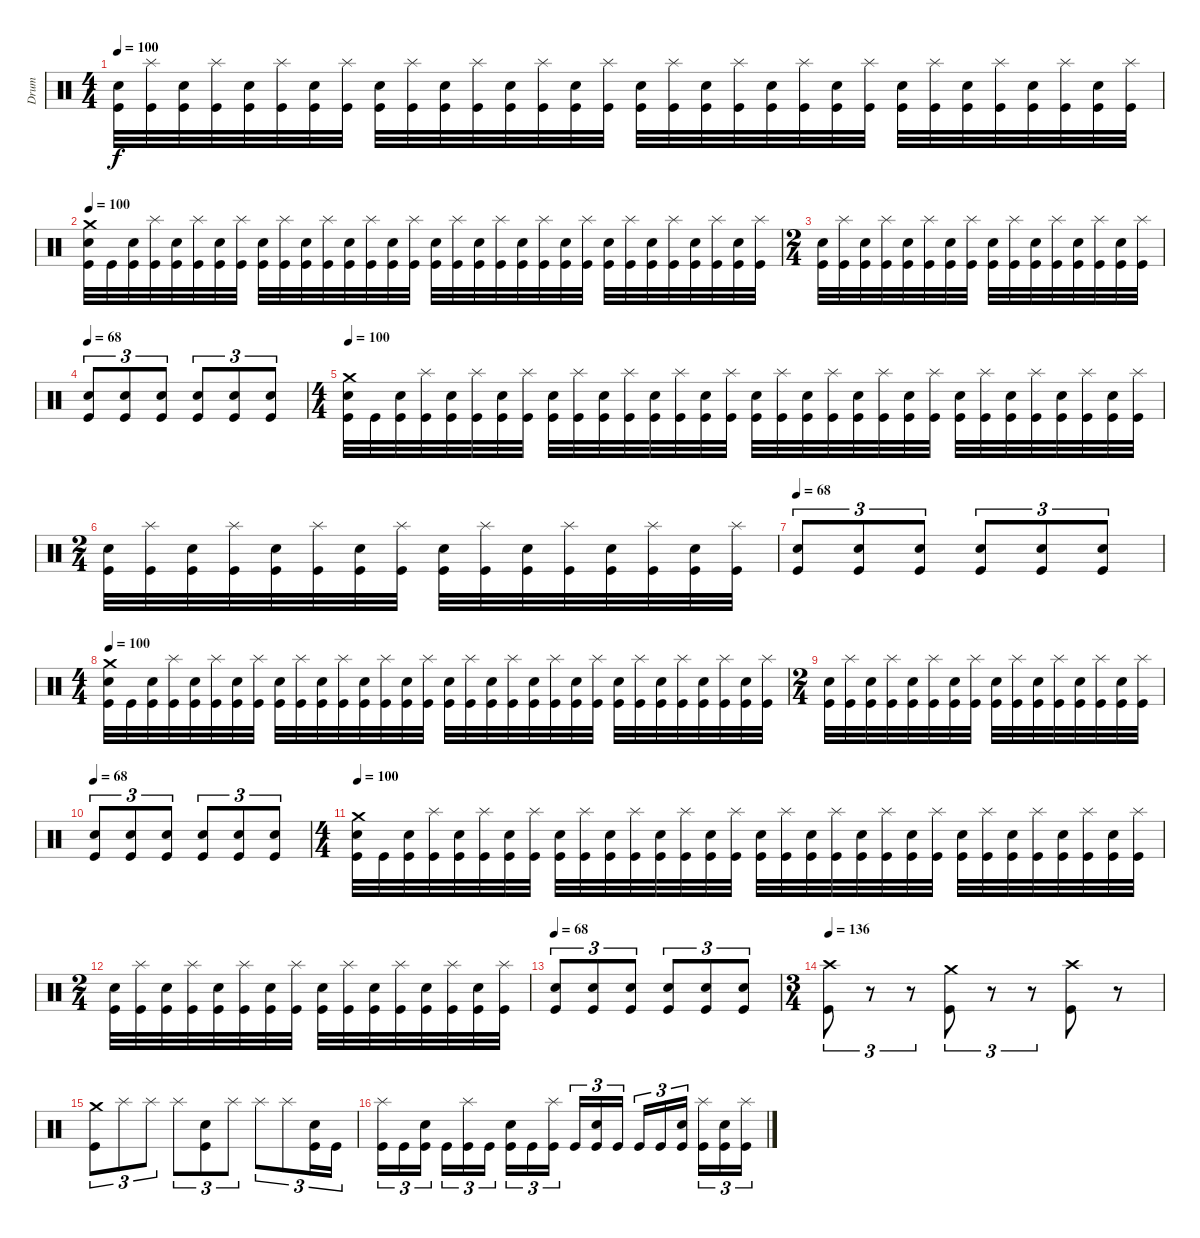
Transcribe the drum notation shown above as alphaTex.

\track ("Drum" "Drum") {instrument percussion}
\staff
\articulation defaults
\ts (4 4)
\tempo 100
\clef neutral
\ks c
("Electric Snare (hit)" "Kick (hit)").32{dy f} ("Splash (hit)" "Kick (hit)").32 ("Electric Snare (hit)" "Kick (hit)").32 ("Splash (hit)" "Kick (hit)").32 ("Electric Snare (hit)" "Kick (hit)").32 ("Splash (hit)" "Kick (hit)").32 ("Electric Snare (hit)" "Kick (hit)").32 ("Splash (hit)" "Kick (hit)").32 ("Electric Snare (hit)" "Kick (hit)").32 ("Splash (hit)" "Kick (hit)").32 ("Electric Snare (hit)" "Kick (hit)").32 ("Splash (hit)" "Kick (hit)").32 ("Electric Snare (hit)" "Kick (hit)").32 ("Splash (hit)" "Kick (hit)").32 ("Electric Snare (hit)" "Kick (hit)").32 ("Splash (hit)" "Kick (hit)").32 ("Electric Snare (hit)" "Kick (hit)").32 ("Splash (hit)" "Kick (hit)").32 ("Electric Snare (hit)" "Kick (hit)").32 ("Splash (hit)" "Kick (hit)").32 ("Electric Snare (hit)" "Kick (hit)").32 ("Splash (hit)" "Kick (hit)").32 ("Electric Snare (hit)" "Kick (hit)").32 ("Splash (hit)" "Kick (hit)").32 ("Electric Snare (hit)" "Kick (hit)").32 ("Splash (hit)" "Kick (hit)").32 ("Electric Snare (hit)" "Kick (hit)").32 ("Splash (hit)" "Kick (hit)").32 ("Electric Snare (hit)" "Kick (hit)").32 ("Splash (hit)" "Kick (hit)").32 ("Electric Snare (hit)" "Kick (hit)").32 ("Splash (hit)" "Kick (hit)").32 |
\tempo 100
("Crash medium (hit)" "Electric Snare (hit)" "Kick (hit)").32 "Kick (hit)".32 ("Electric Snare (hit)" "Kick (hit)").32 ("Splash (hit)" "Kick (hit)").32 ("Electric Snare (hit)" "Kick (hit)").32 ("Splash (hit)" "Kick (hit)").32 ("Electric Snare (hit)" "Kick (hit)").32 ("Splash (hit)" "Kick (hit)").32 ("Electric Snare (hit)" "Kick (hit)").32 ("Splash (hit)" "Kick (hit)").32 ("Electric Snare (hit)" "Kick (hit)").32 ("Splash (hit)" "Kick (hit)").32 ("Electric Snare (hit)" "Kick (hit)").32 ("Splash (hit)" "Kick (hit)").32 ("Electric Snare (hit)" "Kick (hit)").32 ("Splash (hit)" "Kick (hit)").32 ("Electric Snare (hit)" "Kick (hit)").32 ("Splash (hit)" "Kick (hit)").32 ("Electric Snare (hit)" "Kick (hit)").32 ("Splash (hit)" "Kick (hit)").32 ("Electric Snare (hit)" "Kick (hit)").32 ("Splash (hit)" "Kick (hit)").32 ("Electric Snare (hit)" "Kick (hit)").32 ("Splash (hit)" "Kick (hit)").32 ("Electric Snare (hit)" "Kick (hit)").32 ("Splash (hit)" "Kick (hit)").32 ("Electric Snare (hit)" "Kick (hit)").32 ("Splash (hit)" "Kick (hit)").32 ("Electric Snare (hit)" "Kick (hit)").32 ("Splash (hit)" "Kick (hit)").32 ("Electric Snare (hit)" "Kick (hit)").32 ("Splash (hit)" "Kick (hit)").32 |
\ts (2 4)
("Electric Snare (hit)" "Kick (hit)").32 ("Splash (hit)" "Kick (hit)").32 ("Electric Snare (hit)" "Kick (hit)").32 ("Splash (hit)" "Kick (hit)").32 ("Electric Snare (hit)" "Kick (hit)").32 ("Splash (hit)" "Kick (hit)").32 ("Electric Snare (hit)" "Kick (hit)").32 ("Splash (hit)" "Kick (hit)").32 ("Electric Snare (hit)" "Kick (hit)").32 ("Splash (hit)" "Kick (hit)").32 ("Electric Snare (hit)" "Kick (hit)").32 ("Splash (hit)" "Kick (hit)").32 ("Electric Snare (hit)" "Kick (hit)").32 ("Splash (hit)" "Kick (hit)").32 ("Electric Snare (hit)" "Kick (hit)").32 ("Splash (hit)" "Kick (hit)").32 |
\tempo 68
("Electric Snare (hit)" "Kick (hit)").8{tu (3 2)} ("Electric Snare (hit)" "Kick (hit)").8{tu (3 2)} ("Electric Snare (hit)" "Kick (hit)").8{tu (3 2)} ("Electric Snare (hit)" "Kick (hit)").8{tu (3 2)} ("Electric Snare (hit)" "Kick (hit)").8{tu (3 2)} ("Electric Snare (hit)" "Kick (hit)").8{tu (3 2)} |
\ts (4 4)
\tempo 100
("Crash medium (hit)" "Electric Snare (hit)" "Kick (hit)").32 "Kick (hit)".32 ("Electric Snare (hit)" "Kick (hit)").32 ("Splash (hit)" "Kick (hit)").32 ("Electric Snare (hit)" "Kick (hit)").32 ("Splash (hit)" "Kick (hit)").32 ("Electric Snare (hit)" "Kick (hit)").32 ("Splash (hit)" "Kick (hit)").32 ("Electric Snare (hit)" "Kick (hit)").32 ("Splash (hit)" "Kick (hit)").32 ("Electric Snare (hit)" "Kick (hit)").32 ("Splash (hit)" "Kick (hit)").32 ("Electric Snare (hit)" "Kick (hit)").32 ("Splash (hit)" "Kick (hit)").32 ("Electric Snare (hit)" "Kick (hit)").32 ("Splash (hit)" "Kick (hit)").32 ("Electric Snare (hit)" "Kick (hit)").32 ("Splash (hit)" "Kick (hit)").32 ("Electric Snare (hit)" "Kick (hit)").32 ("Splash (hit)" "Kick (hit)").32 ("Electric Snare (hit)" "Kick (hit)").32 ("Splash (hit)" "Kick (hit)").32 ("Electric Snare (hit)" "Kick (hit)").32 ("Splash (hit)" "Kick (hit)").32 ("Electric Snare (hit)" "Kick (hit)").32 ("Splash (hit)" "Kick (hit)").32 ("Electric Snare (hit)" "Kick (hit)").32 ("Splash (hit)" "Kick (hit)").32 ("Electric Snare (hit)" "Kick (hit)").32 ("Splash (hit)" "Kick (hit)").32 ("Electric Snare (hit)" "Kick (hit)").32 ("Splash (hit)" "Kick (hit)").32 |
\ts (2 4)
("Electric Snare (hit)" "Kick (hit)").32 ("Splash (hit)" "Kick (hit)").32 ("Electric Snare (hit)" "Kick (hit)").32 ("Splash (hit)" "Kick (hit)").32 ("Electric Snare (hit)" "Kick (hit)").32 ("Splash (hit)" "Kick (hit)").32 ("Electric Snare (hit)" "Kick (hit)").32 ("Splash (hit)" "Kick (hit)").32 ("Electric Snare (hit)" "Kick (hit)").32 ("Splash (hit)" "Kick (hit)").32 ("Electric Snare (hit)" "Kick (hit)").32 ("Splash (hit)" "Kick (hit)").32 ("Electric Snare (hit)" "Kick (hit)").32 ("Splash (hit)" "Kick (hit)").32 ("Electric Snare (hit)" "Kick (hit)").32 ("Splash (hit)" "Kick (hit)").32 |
\tempo 68
("Electric Snare (hit)" "Kick (hit)").8{tu (3 2)} ("Electric Snare (hit)" "Kick (hit)").8{tu (3 2)} ("Electric Snare (hit)" "Kick (hit)").8{tu (3 2)} ("Electric Snare (hit)" "Kick (hit)").8{tu (3 2)} ("Electric Snare (hit)" "Kick (hit)").8{tu (3 2)} ("Electric Snare (hit)" "Kick (hit)").8{tu (3 2)} |
\ts (4 4)
\tempo 100
("Crash medium (hit)" "Electric Snare (hit)" "Kick (hit)").32 "Kick (hit)".32 ("Electric Snare (hit)" "Kick (hit)").32 ("Splash (hit)" "Kick (hit)").32 ("Electric Snare (hit)" "Kick (hit)").32 ("Splash (hit)" "Kick (hit)").32 ("Electric Snare (hit)" "Kick (hit)").32 ("Splash (hit)" "Kick (hit)").32 ("Electric Snare (hit)" "Kick (hit)").32 ("Splash (hit)" "Kick (hit)").32 ("Electric Snare (hit)" "Kick (hit)").32 ("Splash (hit)" "Kick (hit)").32 ("Electric Snare (hit)" "Kick (hit)").32 ("Splash (hit)" "Kick (hit)").32 ("Electric Snare (hit)" "Kick (hit)").32 ("Splash (hit)" "Kick (hit)").32 ("Electric Snare (hit)" "Kick (hit)").32 ("Splash (hit)" "Kick (hit)").32 ("Electric Snare (hit)" "Kick (hit)").32 ("Splash (hit)" "Kick (hit)").32 ("Electric Snare (hit)" "Kick (hit)").32 ("Splash (hit)" "Kick (hit)").32 ("Electric Snare (hit)" "Kick (hit)").32 ("Splash (hit)" "Kick (hit)").32 ("Electric Snare (hit)" "Kick (hit)").32 ("Splash (hit)" "Kick (hit)").32 ("Electric Snare (hit)" "Kick (hit)").32 ("Splash (hit)" "Kick (hit)").32 ("Electric Snare (hit)" "Kick (hit)").32 ("Splash (hit)" "Kick (hit)").32 ("Electric Snare (hit)" "Kick (hit)").32 ("Splash (hit)" "Kick (hit)").32 |
\ts (2 4)
("Electric Snare (hit)" "Kick (hit)").32 ("Splash (hit)" "Kick (hit)").32 ("Electric Snare (hit)" "Kick (hit)").32 ("Splash (hit)" "Kick (hit)").32 ("Electric Snare (hit)" "Kick (hit)").32 ("Splash (hit)" "Kick (hit)").32 ("Electric Snare (hit)" "Kick (hit)").32 ("Splash (hit)" "Kick (hit)").32 ("Electric Snare (hit)" "Kick (hit)").32 ("Splash (hit)" "Kick (hit)").32 ("Electric Snare (hit)" "Kick (hit)").32 ("Splash (hit)" "Kick (hit)").32 ("Electric Snare (hit)" "Kick (hit)").32 ("Splash (hit)" "Kick (hit)").32 ("Electric Snare (hit)" "Kick (hit)").32 ("Splash (hit)" "Kick (hit)").32 |
\tempo 68
("Electric Snare (hit)" "Kick (hit)").8{tu (3 2)} ("Electric Snare (hit)" "Kick (hit)").8{tu (3 2)} ("Electric Snare (hit)" "Kick (hit)").8{tu (3 2)} ("Electric Snare (hit)" "Kick (hit)").8{tu (3 2)} ("Electric Snare (hit)" "Kick (hit)").8{tu (3 2)} ("Electric Snare (hit)" "Kick (hit)").8{tu (3 2)} |
\ts (4 4)
\tempo 100
("Crash medium (hit)" "Electric Snare (hit)" "Kick (hit)").32 "Kick (hit)".32 ("Electric Snare (hit)" "Kick (hit)").32 ("Splash (hit)" "Kick (hit)").32 ("Electric Snare (hit)" "Kick (hit)").32 ("Splash (hit)" "Kick (hit)").32 ("Electric Snare (hit)" "Kick (hit)").32 ("Splash (hit)" "Kick (hit)").32 ("Electric Snare (hit)" "Kick (hit)").32 ("Splash (hit)" "Kick (hit)").32 ("Electric Snare (hit)" "Kick (hit)").32 ("Splash (hit)" "Kick (hit)").32 ("Electric Snare (hit)" "Kick (hit)").32 ("Splash (hit)" "Kick (hit)").32 ("Electric Snare (hit)" "Kick (hit)").32 ("Splash (hit)" "Kick (hit)").32 ("Electric Snare (hit)" "Kick (hit)").32 ("Splash (hit)" "Kick (hit)").32 ("Electric Snare (hit)" "Kick (hit)").32 ("Splash (hit)" "Kick (hit)").32 ("Electric Snare (hit)" "Kick (hit)").32 ("Splash (hit)" "Kick (hit)").32 ("Electric Snare (hit)" "Kick (hit)").32 ("Splash (hit)" "Kick (hit)").32 ("Electric Snare (hit)" "Kick (hit)").32 ("Splash (hit)" "Kick (hit)").32 ("Electric Snare (hit)" "Kick (hit)").32 ("Splash (hit)" "Kick (hit)").32 ("Electric Snare (hit)" "Kick (hit)").32 ("Splash (hit)" "Kick (hit)").32 ("Electric Snare (hit)" "Kick (hit)").32 ("Splash (hit)" "Kick (hit)").32 |
\ts (2 4)
("Electric Snare (hit)" "Kick (hit)").32 ("Splash (hit)" "Kick (hit)").32 ("Electric Snare (hit)" "Kick (hit)").32 ("Splash (hit)" "Kick (hit)").32 ("Electric Snare (hit)" "Kick (hit)").32 ("Splash (hit)" "Kick (hit)").32 ("Electric Snare (hit)" "Kick (hit)").32 ("Splash (hit)" "Kick (hit)").32 ("Electric Snare (hit)" "Kick (hit)").32 ("Splash (hit)" "Kick (hit)").32 ("Electric Snare (hit)" "Kick (hit)").32 ("Splash (hit)" "Kick (hit)").32 ("Electric Snare (hit)" "Kick (hit)").32 ("Splash (hit)" "Kick (hit)").32 ("Electric Snare (hit)" "Kick (hit)").32 ("Splash (hit)" "Kick (hit)").32 |
\tempo 68
("Electric Snare (hit)" "Kick (hit)").8{tu (3 2)} ("Electric Snare (hit)" "Kick (hit)").8{tu (3 2)} ("Electric Snare (hit)" "Kick (hit)").8{tu (3 2)} ("Electric Snare (hit)" "Kick (hit)").8{tu (3 2)} ("Electric Snare (hit)" "Kick (hit)").8{tu (3 2)} ("Electric Snare (hit)" "Kick (hit)").8{tu (3 2)} |
\ts (3 4)
\tempo 136
("Crash high (hit)" "Kick (hit)").8{tu (3 2)} r.8{tu (3 2)} r.8{tu (3 2)} ("Crash medium (hit)" "Kick (hit)").8{tu (3 2)} r.8{tu (3 2)} r.8{tu (3 2)} ("Crash high (hit)" "Kick (hit)").8 r.8 |
("Crash medium (hit)" "Kick (hit)").8{tu (3 2)} "Splash (hit)".8{tu (3 2)} "Splash (hit)".8{tu (3 2)} "Splash (hit)".8{tu (3 2)} ("Electric Snare (hit)" "Kick (hit)").8{tu (3 2)} "Splash (hit)".8{tu (3 2)} "Splash (hit)".8{tu (3 2)} "Splash (hit)".8{tu (3 2)} ("Electric Snare (hit)" "Kick (hit)").16{tu (3 2)} "Kick (hit)".16{tu (3 2)} |
("Splash (hit)" "Kick (hit)").16{tu (3 2)} "Kick (hit)".16{tu (3 2)} ("Electric Snare (hit)" "Kick (hit)").16{tu (3 2) beam splitsecondary} "Kick (hit)".16{tu (3 2)} ("Splash (hit)" "Kick (hit)").16{tu (3 2)} "Kick (hit)".16{tu (3 2)} ("Electric Snare (hit)" "Kick (hit)").16{tu (3 2)} "Kick (hit)".16{tu (3 2)} ("Splash (hit)" "Kick (hit)").16{tu (3 2) beam splitsecondary} "Kick (hit)".16{tu (3 2)} ("Electric Snare (hit)" "Kick (hit)").16{tu (3 2)} "Kick (hit)".16{tu (3 2)} "Kick (hit)".16{tu (3 2)} "Kick (hit)".16{tu (3 2)} ("Electric Snare (hit)" "Kick (hit)").16{tu (3 2) beam splitsecondary} ("Splash (hit)" "Kick (hit)").16{tu (3 2)} ("Electric Snare (hit)" "Kick (hit)").16{tu (3 2)} ("Splash (hit)" "Kick (hit)").16{tu (3 2)}
